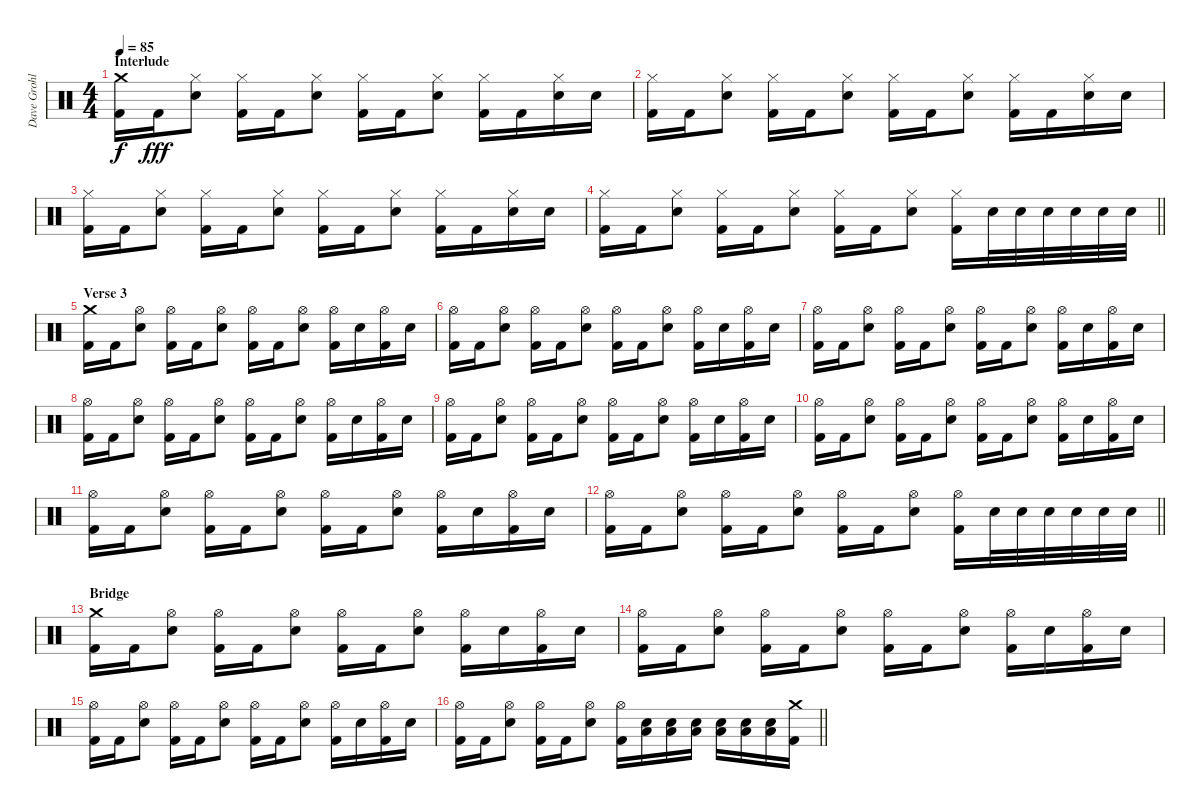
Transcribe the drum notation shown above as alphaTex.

\track ("Dave Grohl ( Drums )" "Dave Grohl") {instrument percussion}
\staff {score}
\articulation defaults
\ts (4 4)
\section ("" "Interlude")
\tempo 85
\clef neutral
\ks c
("Crash medium (hit)"{t} "Kick (hit) 2"{t}).16{dy f} "Kick (hit) 2".16{dy fff} ("Hi-Hat (closed)" "Electric Snare (hit)").8 ("Hi-Hat (closed)" "Kick (hit) 2").16 "Kick (hit) 2".16 ("Hi-Hat (closed)" "Electric Snare (hit)").8 ("Hi-Hat (closed)" "Kick (hit) 2").16 "Kick (hit) 2".16 ("Hi-Hat (closed)" "Electric Snare (hit)").8 ("Hi-Hat (closed)" "Kick (hit) 2").16 "Kick (hit) 2".16 ("Hi-Hat (closed)" "Electric Snare (hit)").16 "Electric Snare (hit)".16 |
("Hi-Hat (closed)" "Kick (hit) 2").16 "Kick (hit) 2".16 ("Hi-Hat (closed)" "Electric Snare (hit)").8 ("Hi-Hat (closed)" "Kick (hit) 2").16 "Kick (hit) 2".16 ("Hi-Hat (closed)" "Electric Snare (hit)").8 ("Hi-Hat (closed)" "Kick (hit) 2").16 "Kick (hit) 2".16 ("Hi-Hat (closed)" "Electric Snare (hit)").8 ("Hi-Hat (closed)" "Kick (hit) 2").16 "Kick (hit) 2".16 ("Hi-Hat (closed)" "Electric Snare (hit)").16 "Electric Snare (hit)".16 |
("Hi-Hat (closed)" "Kick (hit) 2").16 "Kick (hit) 2".16 ("Hi-Hat (closed)" "Electric Snare (hit)").8 ("Hi-Hat (closed)" "Kick (hit) 2").16 "Kick (hit) 2".16 ("Hi-Hat (closed)" "Electric Snare (hit)").8 ("Hi-Hat (closed)" "Kick (hit) 2").16 "Kick (hit) 2".16 ("Hi-Hat (closed)" "Electric Snare (hit)").8 ("Hi-Hat (closed)" "Kick (hit) 2").16 "Kick (hit) 2".16 ("Hi-Hat (closed)" "Electric Snare (hit)").16 "Electric Snare (hit)".16 |
\barLineRight lightlight
("Hi-Hat (closed)" "Kick (hit) 2").16 "Kick (hit) 2".16 ("Hi-Hat (closed)" "Electric Snare (hit)").8 ("Hi-Hat (closed)" "Kick (hit) 2").16 "Kick (hit) 2".16 ("Hi-Hat (closed)" "Electric Snare (hit)").8 ("Hi-Hat (closed)" "Kick (hit) 2").16 "Kick (hit) 2".16 ("Hi-Hat (closed)" "Electric Snare (hit)").8 ("Hi-Hat (closed)" "Kick (hit) 2").16 "Electric Snare (hit)".32 "Electric Snare (hit)".32 "Electric Snare (hit)".32 "Electric Snare (hit)".32 "Electric Snare (hit)".32 "Electric Snare (hit)".32 |
\section ("" "Verse 3")
("Crash medium (hit)" "Kick (hit) 2").16 "Kick (hit) 2".16 ("Hi-Hat (open)" "Electric Snare (hit)").8 ("Hi-Hat (open)" "Kick (hit) 2").16 "Kick (hit) 2".16 ("Hi-Hat (open)" "Electric Snare (hit)").8 ("Hi-Hat (open)" "Kick (hit) 2").16 "Kick (hit) 2".16 ("Hi-Hat (open)" "Electric Snare (hit)").8 ("Hi-Hat (open)" "Kick (hit) 2").16 "Electric Snare (hit)".16 ("Hi-Hat (open)" "Kick (hit) 2").16 "Electric Snare (hit)".16 |
("Hi-Hat (open)" "Kick (hit) 2").16 "Kick (hit) 2".16 ("Hi-Hat (open)" "Electric Snare (hit)").8 ("Hi-Hat (open)" "Kick (hit) 2").16 "Kick (hit) 2".16 ("Hi-Hat (open)" "Electric Snare (hit)").8 ("Hi-Hat (open)" "Kick (hit) 2").16 "Kick (hit) 2".16 ("Hi-Hat (open)" "Electric Snare (hit)").8 ("Hi-Hat (open)" "Kick (hit) 2").16 "Electric Snare (hit)".16 ("Hi-Hat (open)" "Kick (hit) 2").16 "Electric Snare (hit)".16 |
("Hi-Hat (open)" "Kick (hit) 2").16 "Kick (hit) 2".16 ("Hi-Hat (open)" "Electric Snare (hit)").8 ("Hi-Hat (open)" "Kick (hit) 2").16 "Kick (hit) 2".16 ("Hi-Hat (open)" "Electric Snare (hit)").8 ("Hi-Hat (open)" "Kick (hit) 2").16 "Kick (hit) 2".16 ("Hi-Hat (open)" "Electric Snare (hit)").8 ("Hi-Hat (open)" "Kick (hit) 2").16 "Electric Snare (hit)".16 ("Hi-Hat (open)" "Kick (hit) 2").16 "Electric Snare (hit)".16 |
("Hi-Hat (open)" "Kick (hit) 2").16 "Kick (hit) 2".16 ("Hi-Hat (open)" "Electric Snare (hit)").8 ("Hi-Hat (open)" "Kick (hit) 2").16 "Kick (hit) 2".16 ("Hi-Hat (open)" "Electric Snare (hit)").8 ("Hi-Hat (open)" "Kick (hit) 2").16 "Kick (hit) 2".16 ("Hi-Hat (open)" "Electric Snare (hit)").8 ("Hi-Hat (open)" "Kick (hit) 2").16 "Electric Snare (hit)".16 ("Hi-Hat (open)" "Kick (hit) 2").16 "Electric Snare (hit)".16 |
("Hi-Hat (open)" "Kick (hit) 2").16 "Kick (hit) 2".16 ("Hi-Hat (open)" "Electric Snare (hit)").8 ("Hi-Hat (open)" "Kick (hit) 2").16 "Kick (hit) 2".16 ("Hi-Hat (open)" "Electric Snare (hit)").8 ("Hi-Hat (open)" "Kick (hit) 2").16 "Kick (hit) 2".16 ("Hi-Hat (open)" "Electric Snare (hit)").8 ("Hi-Hat (open)" "Kick (hit) 2").16 "Electric Snare (hit)".16 ("Hi-Hat (open)" "Kick (hit) 2").16 "Electric Snare (hit)".16 |
("Hi-Hat (open)" "Kick (hit) 2").16 "Kick (hit) 2".16 ("Hi-Hat (open)" "Electric Snare (hit)").8 ("Hi-Hat (open)" "Kick (hit) 2").16 "Kick (hit) 2".16 ("Hi-Hat (open)" "Electric Snare (hit)").8 ("Hi-Hat (open)" "Kick (hit) 2").16 "Kick (hit) 2".16 ("Hi-Hat (open)" "Electric Snare (hit)").8 ("Hi-Hat (open)" "Kick (hit) 2").16 "Electric Snare (hit)".16 ("Hi-Hat (open)" "Kick (hit) 2").16 "Electric Snare (hit)".16 |
("Hi-Hat (open)" "Kick (hit) 2").16 "Kick (hit) 2".16 ("Hi-Hat (open)" "Electric Snare (hit)").8 ("Hi-Hat (open)" "Kick (hit) 2").16 "Kick (hit) 2".16 ("Hi-Hat (open)" "Electric Snare (hit)").8 ("Hi-Hat (open)" "Kick (hit) 2").16 "Kick (hit) 2".16 ("Hi-Hat (open)" "Electric Snare (hit)").8 ("Hi-Hat (open)" "Kick (hit) 2").16 "Electric Snare (hit)".16 ("Hi-Hat (open)" "Kick (hit) 2").16 "Electric Snare (hit)".16 |
\barLineRight lightlight
("Hi-Hat (open)" "Kick (hit) 2").16 "Kick (hit) 2".16 ("Hi-Hat (open)" "Electric Snare (hit)").8 ("Hi-Hat (open)" "Kick (hit) 2").16 "Kick (hit) 2".16 ("Hi-Hat (open)" "Electric Snare (hit)").8 ("Hi-Hat (open)" "Kick (hit) 2").16 "Kick (hit) 2".16 ("Hi-Hat (open)" "Electric Snare (hit)").8 ("Hi-Hat (open)" "Kick (hit) 2").16 "Electric Snare (hit)".32 "Electric Snare (hit)".32 "Electric Snare (hit)".32 "Electric Snare (hit)".32 "Electric Snare (hit)".32 "Electric Snare (hit)".32 |
\section ("" "Bridge")
("Crash medium (hit)" "Kick (hit) 2").16 "Kick (hit) 2".16 ("Hi-Hat (open)" "Electric Snare (hit)").8 ("Hi-Hat (open)" "Kick (hit) 2").16 "Kick (hit) 2".16 ("Hi-Hat (open)" "Electric Snare (hit)").8 ("Hi-Hat (open)" "Kick (hit) 2").16 "Kick (hit) 2".16 ("Hi-Hat (open)" "Electric Snare (hit)").8 ("Hi-Hat (open)" "Kick (hit) 2").16 "Electric Snare (hit)".16 ("Hi-Hat (open)" "Kick (hit) 2").16 "Electric Snare (hit)".16 |
("Hi-Hat (open)" "Kick (hit) 2").16 "Kick (hit) 2".16 ("Hi-Hat (open)" "Electric Snare (hit)").8 ("Hi-Hat (open)" "Kick (hit) 2").16 "Kick (hit) 2".16 ("Hi-Hat (open)" "Electric Snare (hit)").8 ("Hi-Hat (open)" "Kick (hit) 2").16 "Kick (hit) 2".16 ("Hi-Hat (open)" "Electric Snare (hit)").8 ("Hi-Hat (open)" "Kick (hit) 2").16 "Electric Snare (hit)".16 ("Hi-Hat (open)" "Kick (hit) 2").16 "Electric Snare (hit)".16 |
("Hi-Hat (open)" "Kick (hit) 2").16 "Kick (hit) 2".16 ("Hi-Hat (open)" "Electric Snare (hit)").8 ("Hi-Hat (open)" "Kick (hit) 2").16 "Kick (hit) 2".16 ("Hi-Hat (open)" "Electric Snare (hit)").8 ("Hi-Hat (open)" "Kick (hit) 2").16 "Kick (hit) 2".16 ("Hi-Hat (open)" "Electric Snare (hit)").8 ("Hi-Hat (open)" "Kick (hit) 2").16 "Electric Snare (hit)".16 ("Hi-Hat (open)" "Kick (hit) 2").16 "Electric Snare (hit)".16 |
\barLineRight lightlight
("Hi-Hat (open)" "Kick (hit) 2").16 "Kick (hit) 2".16 ("Hi-Hat (open)" "Electric Snare (hit)").8 ("Hi-Hat (open)" "Kick (hit) 2").16 "Kick (hit) 2".16 ("Hi-Hat (open)" "Electric Snare (hit)").8 ("Hi-Hat (open)" "Kick (hit) 2").16 ("Low Floor Tom (hit)" "Electric Snare (hit)").16 ("Low Floor Tom (hit)" "Electric Snare (hit)").16 ("Low Floor Tom (hit)" "Electric Snare (hit)").16 ("Low Floor Tom (hit)" "Electric Snare (hit)").16 ("Low Floor Tom (hit)" "Electric Snare (hit)").16 ("Low Floor Tom (hit)" "Electric Snare (hit)").16 ("Crash medium (hit)" "Kick (hit) 2").16
